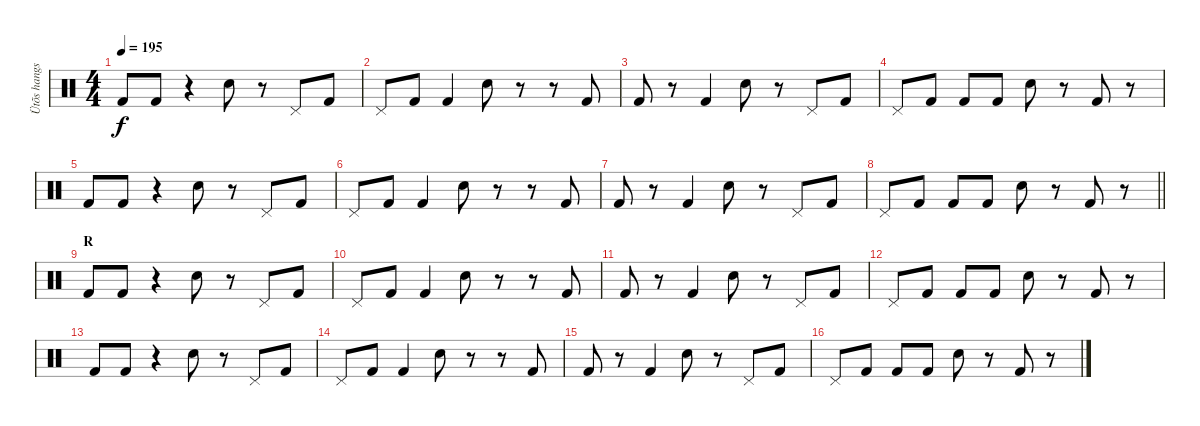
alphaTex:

\track ("Ütõs hangszer" "Ütõs hangs") {instrument percussion}
\staff {score}
\articulation defaults
\ts (4 4)
\tempo 195
\clef neutral
\ks c "Kick (hit) 2".8{dy f} "Kick (hit) 2".8
r.4 "Electric Snare (hit)".8 r.8 "Pedal Hi-Hat (hit)".8 "Kick (hit) 2".8 |
"Pedal Hi-Hat (hit)".8 "Kick (hit) 2".8 "Kick (hit) 2".4 "Electric Snare (hit)".8 r.8 r.8 "Kick (hit) 2".8 |
"Kick (hit) 2".8 r.8 "Kick (hit) 2".4 "Electric Snare (hit)".8 r.8 "Pedal Hi-Hat (hit)".8 "Kick (hit) 2".8 |
"Pedal Hi-Hat (hit)".8 "Kick (hit) 2".8 "Kick (hit) 2".8 "Kick (hit) 2".8 "Electric Snare (hit)".8 r.8 "Kick (hit) 2".8 r.8 |
"Kick (hit) 2".8 "Kick (hit) 2".8 r.4 "Electric Snare (hit)".8 r.8 "Pedal Hi-Hat (hit)".8 "Kick (hit) 2".8 |
"Pedal Hi-Hat (hit)".8 "Kick (hit) 2".8 "Kick (hit) 2".4 "Electric Snare (hit)".8 r.8 r.8 "Kick (hit) 2".8 |
"Kick (hit) 2".8 r.8 "Kick (hit) 2".4 "Electric Snare (hit)".8 r.8 "Pedal Hi-Hat (hit)".8 "Kick (hit) 2".8 |
\barLineRight lightlight "Pedal Hi-Hat (hit)".8 "Kick (hit) 2".8 "Kick (hit) 2".8 "Kick (hit) 2".8 "Electric Snare (hit)".8
r.8 "Kick (hit) 2".8 r.8 |
\section ("" "R")
"Kick (hit) 2".8 "Kick (hit) 2".8 r.4 "Electric Snare (hit)".8 r.8 "Pedal Hi-Hat (hit)".8 "Kick (hit) 2".8 |
"Pedal Hi-Hat (hit)".8 "Kick (hit) 2".8 "Kick (hit) 2".4 "Electric Snare (hit)".8 r.8 r.8 "Kick (hit) 2".8 |
"Kick (hit) 2".8 r.8 "Kick (hit) 2".4 "Electric Snare (hit)".8 r.8 "Pedal Hi-Hat (hit)".8 "Kick (hit) 2".8 |
"Pedal Hi-Hat (hit)".8 "Kick (hit) 2".8 "Kick (hit) 2".8 "Kick (hit) 2".8 "Electric Snare (hit)".8 r.8 "Kick (hit) 2".8 r.8 |
"Kick (hit) 2".8 "Kick (hit) 2".8 r.4 "Electric Snare (hit)".8 r.8 "Pedal Hi-Hat (hit)".8 "Kick (hit) 2".8 |
"Pedal Hi-Hat (hit)".8 "Kick (hit) 2".8 "Kick (hit) 2".4 "Electric Snare (hit)".8 r.8 r.8 "Kick (hit) 2".8 |
"Kick (hit) 2".8 r.8 "Kick (hit) 2".4 "Electric Snare (hit)".8 r.8 "Pedal Hi-Hat (hit)".8 "Kick (hit) 2".8 |
"Pedal Hi-Hat (hit)".8 "Kick (hit) 2".8 "Kick (hit) 2".8 "Kick (hit) 2".8 "Electric Snare (hit)".8 r.8 "Kick (hit) 2".8 r.8
